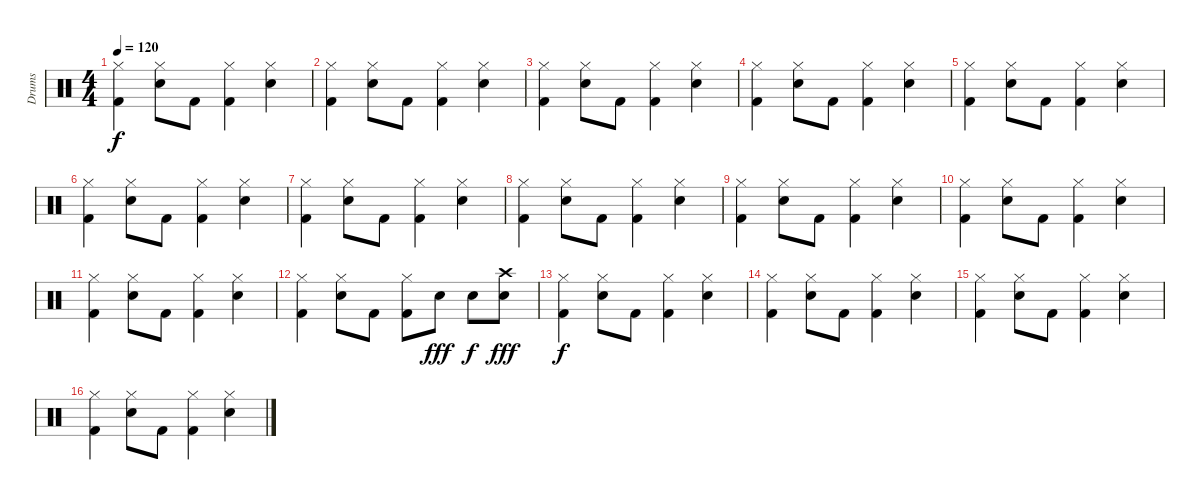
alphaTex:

\track ("Drums" "Drums") {instrument percussion}
\staff {score}
\articulation defaults
\ts (4 4)
\tempo 120
\clef neutral
\ks c
("Hi-Hat (closed)" "Kick (hit) 2").4{dy f} ("Electric Snare (hit)" "Hi-Hat (closed)").8 "Kick (hit) 2".8 ("Hi-Hat (closed)" "Kick (hit) 2").4 ("Electric Snare (hit)" "Hi-Hat (closed)").4 |
("Hi-Hat (closed)" "Kick (hit) 2").4 ("Electric Snare (hit)" "Hi-Hat (closed)").8 "Kick (hit) 2".8 ("Hi-Hat (closed)" "Kick (hit) 2").4 ("Electric Snare (hit)" "Hi-Hat (closed)").4 |
("Hi-Hat (closed)" "Kick (hit) 2").4 ("Electric Snare (hit)" "Hi-Hat (closed)").8 "Kick (hit) 2".8 ("Hi-Hat (closed)" "Kick (hit) 2").4 ("Electric Snare (hit)" "Hi-Hat (closed)").4 |
("Hi-Hat (closed)" "Kick (hit) 2").4 ("Electric Snare (hit)" "Hi-Hat (closed)").8 "Kick (hit) 2".8 ("Hi-Hat (closed)" "Kick (hit) 2").4 ("Electric Snare (hit)" "Hi-Hat (closed)").4 |
("Hi-Hat (closed)" "Kick (hit) 2").4 ("Electric Snare (hit)" "Hi-Hat (closed)").8 "Kick (hit) 2".8 ("Hi-Hat (closed)" "Kick (hit) 2").4 ("Electric Snare (hit)" "Hi-Hat (closed)").4 |
("Hi-Hat (closed)" "Kick (hit) 2").4 ("Electric Snare (hit)" "Hi-Hat (closed)").8 "Kick (hit) 2".8 ("Hi-Hat (closed)" "Kick (hit) 2").4 ("Electric Snare (hit)" "Hi-Hat (closed)").4 |
("Hi-Hat (closed)" "Kick (hit) 2").4 ("Electric Snare (hit)" "Hi-Hat (closed)").8 "Kick (hit) 2".8 ("Hi-Hat (closed)" "Kick (hit) 2").4 ("Electric Snare (hit)" "Hi-Hat (closed)").4 |
("Hi-Hat (closed)" "Kick (hit) 2").4 ("Electric Snare (hit)" "Hi-Hat (closed)").8 "Kick (hit) 2".8 ("Hi-Hat (closed)" "Kick (hit) 2").4 ("Electric Snare (hit)" "Hi-Hat (closed)").4 |
("Hi-Hat (closed)" "Kick (hit) 2").4 ("Electric Snare (hit)" "Hi-Hat (closed)").8 "Kick (hit) 2".8 ("Hi-Hat (closed)" "Kick (hit) 2").4 ("Electric Snare (hit)" "Hi-Hat (closed)").4 |
("Hi-Hat (closed)" "Kick (hit) 2").4 ("Electric Snare (hit)" "Hi-Hat (closed)").8 "Kick (hit) 2".8 ("Hi-Hat (closed)" "Kick (hit) 2").4 ("Electric Snare (hit)" "Hi-Hat (closed)").4 |
("Hi-Hat (closed)" "Kick (hit) 2").4 ("Electric Snare (hit)" "Hi-Hat (closed)").8 "Kick (hit) 2".8 ("Hi-Hat (closed)" "Kick (hit) 2").4 ("Electric Snare (hit)" "Hi-Hat (closed)").4 |
("Hi-Hat (closed)" "Kick (hit) 2").4 ("Electric Snare (hit)" "Hi-Hat (closed)").8 "Kick (hit) 2".8 ("Hi-Hat (closed)" "Kick (hit) 2").8 "Electric Snare (hit)".8{dy fff} "Electric Snare (hit)".8{dy f} ("Electric Snare (hit)" "Crash high (hit)").8{dy fff} |
("Hi-Hat (closed)" "Kick (hit) 2").4{dy f} ("Electric Snare (hit)" "Hi-Hat (closed)").8 "Kick (hit) 2".8 ("Hi-Hat (closed)" "Kick (hit) 2").4 ("Electric Snare (hit)" "Hi-Hat (closed)").4 |
("Hi-Hat (closed)" "Kick (hit) 2").4 ("Electric Snare (hit)" "Hi-Hat (closed)").8 "Kick (hit) 2".8 ("Hi-Hat (closed)" "Kick (hit) 2").4 ("Electric Snare (hit)" "Hi-Hat (closed)").4 |
("Hi-Hat (closed)" "Kick (hit) 2").4 ("Electric Snare (hit)" "Hi-Hat (closed)").8 "Kick (hit) 2".8 ("Hi-Hat (closed)" "Kick (hit) 2").4 ("Electric Snare (hit)" "Hi-Hat (closed)").4 |
("Hi-Hat (closed)" "Kick (hit) 2").4 ("Electric Snare (hit)" "Hi-Hat (closed)").8 "Kick (hit) 2".8 ("Hi-Hat (closed)" "Kick (hit) 2").4 ("Electric Snare (hit)" "Hi-Hat (closed)").4
